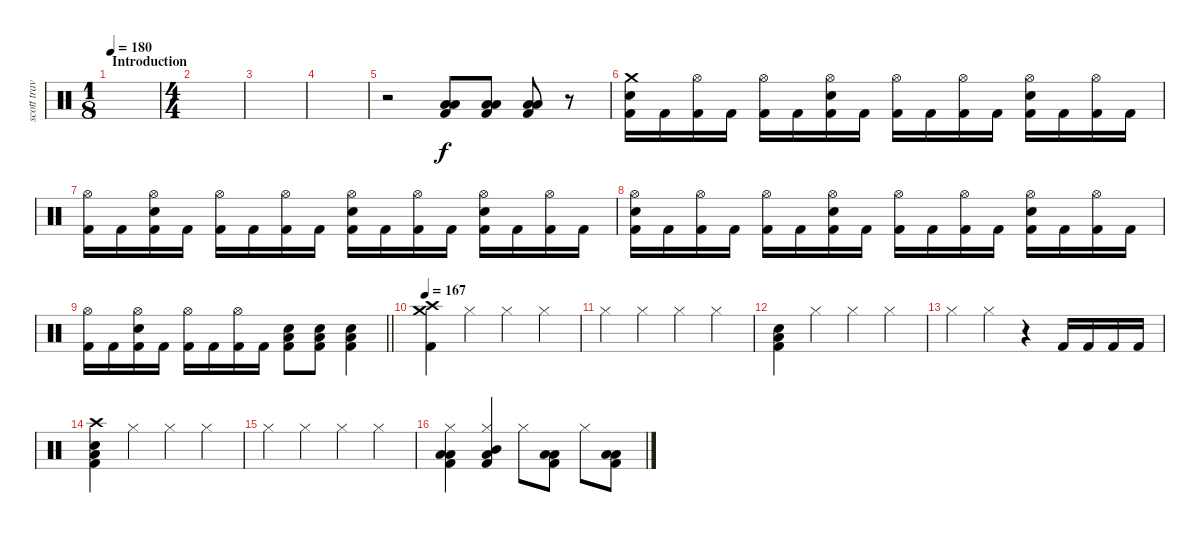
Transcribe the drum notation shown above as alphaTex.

\track ("scott travis" "scott trav") {instrument percussion}
\staff {score}
\articulation defaults
\ts (1 8)
\section ("" "Introduction")
\tempo 180
\clef neutral
\ks c
|
\ts (4 4)
|
|
|
r.2 ("Low Tom (hit)" "Low Floor Tom (hit)" "Kick (hit) 2").8 ("Low Tom (hit)" "Low Floor Tom (hit)" "Kick (hit) 2").8 ("Low Tom (hit)" "Low Floor Tom (hit)" "Kick (hit) 2").8 r.8 |
("Crash medium (hit)" "Snare (hit) 2" "Kick (hit) 2").16 "Kick (hit) 2".16 ("Hi-Hat (open)" "Kick (hit) 2").16 "Kick (hit) 2".16 ("Hi-Hat (open)" "Kick (hit) 2").16 "Kick (hit) 2".16 ("Hi-Hat (open)" "Snare (hit) 2" "Kick (hit) 2").16 "Kick (hit) 2".16 ("Hi-Hat (open)" "Kick (hit) 2").16 "Kick (hit) 2".16 ("Hi-Hat (open)" "Kick (hit) 2").16 "Kick (hit) 2".16 ("Hi-Hat (open)" "Snare (hit) 2" "Kick (hit) 2").16 "Kick (hit) 2".16 ("Hi-Hat (open)" "Kick (hit) 2").16 "Kick (hit) 2".16 |
("Hi-Hat (open)" "Kick (hit) 2").16 "Kick (hit) 2".16 ("Hi-Hat (open)" "Snare (hit) 2" "Kick (hit) 2").16 "Kick (hit) 2".16 ("Hi-Hat (open)" "Kick (hit) 2").16 "Kick (hit) 2".16 ("Hi-Hat (open)" "Kick (hit) 2").16 "Kick (hit) 2".16 ("Hi-Hat (open)" "Snare (hit) 2" "Kick (hit) 2").16 "Kick (hit) 2".16 ("Hi-Hat (open)" "Kick (hit) 2").16 "Kick (hit) 2".16 ("Hi-Hat (open)" "Snare (hit) 2" "Kick (hit) 2").16 "Kick (hit) 2".16 ("Hi-Hat (open)" "Kick (hit) 2").16 "Kick (hit) 2".16 |
("Hi-Hat (open)" "Snare (hit) 2" "Kick (hit) 2").16 "Kick (hit) 2".16 ("Hi-Hat (open)" "Kick (hit) 2").16 "Kick (hit) 2".16 ("Hi-Hat (open)" "Kick (hit) 2").16 "Kick (hit) 2".16 ("Hi-Hat (open)" "Snare (hit) 2" "Kick (hit) 2").16 "Kick (hit) 2".16 ("Hi-Hat (open)" "Kick (hit) 2").16 "Kick (hit) 2".16 ("Hi-Hat (open)" "Kick (hit) 2").16 "Kick (hit) 2".16 ("Hi-Hat (open)" "Snare (hit) 2" "Kick (hit) 2").16 "Kick (hit) 2".16 ("Hi-Hat (open)" "Kick (hit) 2").16 "Kick (hit) 2".16 |
\barLineRight lightlight
("Hi-Hat (open)" "Kick (hit) 2").16 "Kick (hit) 2".16 ("Hi-Hat (open)" "Snare (hit) 2" "Kick (hit) 2").16 "Kick (hit) 2".16 ("Hi-Hat (open)" "Kick (hit) 2").16 "Kick (hit) 2".16 ("Hi-Hat (open)" "Kick (hit) 2").16 "Kick (hit) 2".16 ("Snare (hit) 2" "Low Floor Tom (hit)" "Kick (hit) 2").8 ("Snare (hit) 2" "Low Floor Tom (hit)" "Kick (hit) 2").8 ("Snare (hit) 2" "Low Floor Tom (hit)" "Kick (hit) 2").4 |
\tempo 167
("Crash medium (hit)" "Crash high (hit)" "Kick (hit) 2").4 "Hi-Hat (closed)".4 "Hi-Hat (closed)".4 "Hi-Hat (closed)".4 |
"Hi-Hat (closed)".4 "Hi-Hat (closed)".4 "Hi-Hat (closed)".4 "Hi-Hat (closed)".4 |
("Snare (hit) 2" "Low Floor Tom (hit)" "Kick (hit) 2").4 "Hi-Hat (closed)".4 "Hi-Hat (closed)".4 "Hi-Hat (closed)".4 |
"Hi-Hat (closed)".4 "Hi-Hat (closed)".4 r.4 "Kick (hit) 2".16 "Kick (hit) 2".16 "Kick (hit) 2".16 "Kick (hit) 2".16 |
("Crash high (hit)" "Snare (hit) 2" "Low Floor Tom (hit)" "Kick (hit) 2").4 "Hi-Hat (closed)".4 "Hi-Hat (closed)".4 "Hi-Hat (closed)".4 |
"Hi-Hat (closed)".4 "Hi-Hat (closed)".4 "Hi-Hat (closed)".4 "Hi-Hat (closed)".4 |
("Hi-Hat (closed)" "Low Tom (hit)" "Low Floor Tom (hit)" "Kick (hit) 2").4 ("Hi-Hat (closed)" "Mid Tom (hit)" "Low Floor Tom (hit)" "Kick (hit) 2").4 "Hi-Hat (closed)".8 ("Low Tom (hit)" "Low Floor Tom (hit)" "Kick (hit) 2").8 "Hi-Hat (closed)".8 ("Low Tom (hit)" "Low Floor Tom (hit)" "Kick (hit) 2").8
